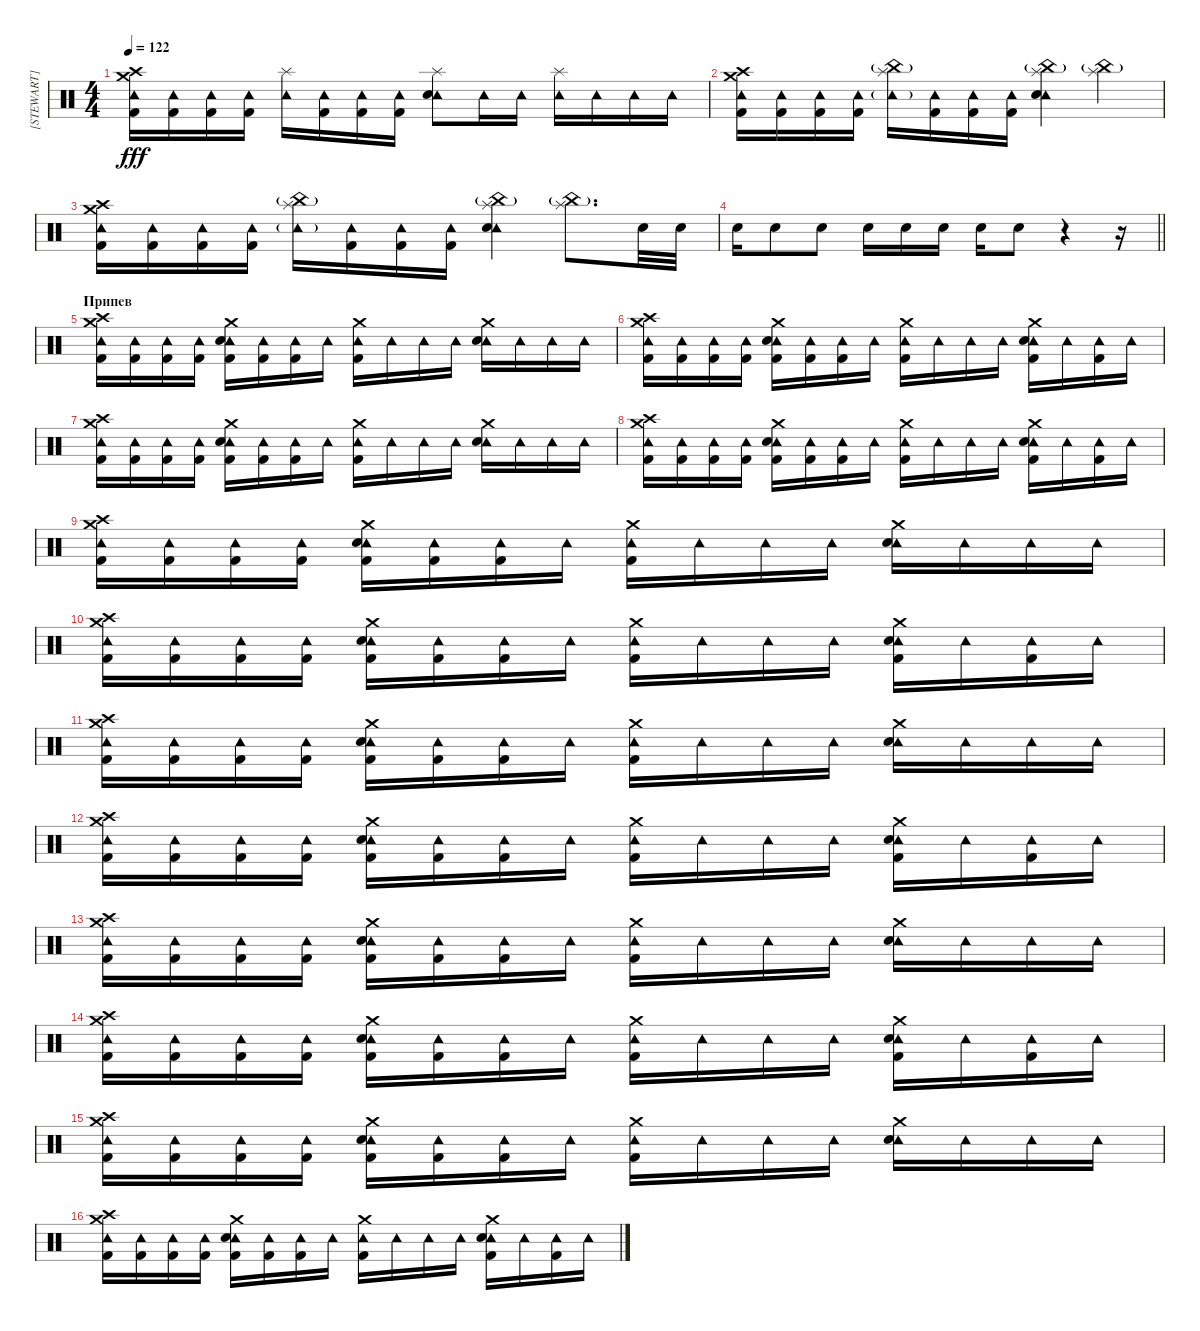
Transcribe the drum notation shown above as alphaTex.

\track ("[STEWART]" "[STEWART]") {instrument percussion}
\staff {score}
\articulation defaults
\ts (4 4)
\tempo 122
\clef neutral
\ks c
("Crash medium (hit)" "Crash high (hit)" "Tambourine (hit)" "Kick (hit) 2").16{dy fff} ("Tambourine (hit)" "Kick (hit) 2").16 ("Tambourine (hit)" "Kick (hit) 2").16 ("Tambourine (hit)" "Kick (hit) 2").16 ("Splash (hit)" "Tambourine (hit)").16 ("Tambourine (hit)" "Kick (hit) 2").16 ("Tambourine (hit)" "Kick (hit) 2").16 ("Tambourine (hit)" "Kick (hit) 2").16 ("Splash (hit)" "Tambourine (hit)" "Electric Snare (hit)").8 "Tambourine (hit)".16 "Tambourine (hit)".16 ("Splash (hit)" "Tambourine (hit)").16 "Tambourine (hit)".16 "Tambourine (hit)".16 "Tambourine (hit)".16 |
("Crash medium (hit)" "Crash high (hit)" "Tambourine (hit)" "Kick (hit) 2").16 ("Tambourine (hit)" "Kick (hit) 2").16 ("Tambourine (hit)" "Kick (hit) 2").16 ("Tambourine (hit)" "Kick (hit) 2").16 ("China (hit)"{g} "Splash (hit)" "Tambourine (hit)"{g}).16 ("Tambourine (hit)" "Kick (hit) 2").16 ("Tambourine (hit)" "Kick (hit) 2").16 ("Tambourine (hit)" "Kick (hit) 2").16 ("China (hit)"{g} "Splash (hit)" "Tambourine (hit)" "Electric Snare (hit)").4 ("China (hit)"{g} "Splash (hit)").4 |
("Crash medium (hit)" "Crash high (hit)" "Tambourine (hit)" "Kick (hit) 2").16 ("Tambourine (hit)" "Kick (hit) 2").16 ("Tambourine (hit)" "Kick (hit) 2").16 ("Tambourine (hit)" "Kick (hit) 2").16 ("China (hit)"{g} "Splash (hit)" "Tambourine (hit)"{g}).16 ("Tambourine (hit)" "Kick (hit) 2").16 ("Tambourine (hit)" "Kick (hit) 2").16 ("Tambourine (hit)" "Kick (hit) 2").16 ("China (hit)"{g} "Splash (hit)" "Tambourine (hit)" "Electric Snare (hit)").4 ("China (hit)"{g} "Splash (hit)").8{d} "Electric Snare (hit)".32 "Electric Snare (hit)".32 |
\barLineRight lightlight "Electric Snare (hit)".16 "Electric Snare (hit)".8 "Electric Snare (hit)".8 "Electric Snare (hit)".16 "Electric Snare (hit)".16 "Electric Snare (hit)".16 "Electric Snare (hit)".16 "Electric Snare (hit)".8
r.4 r.16 |
\section ("" "Припев")
("Crash medium (hit)" "Crash high (hit)" "Tambourine (hit)" "Kick (hit) 2").16 ("Tambourine (hit)" "Kick (hit) 2").16 ("Tambourine (hit)" "Kick (hit) 2").16 ("Tambourine (hit)" "Kick (hit) 2").16 ("Crash medium (hit)" "Tambourine (hit)" "Electric Snare (hit)" "Kick (hit) 2").16 ("Tambourine (hit)" "Kick (hit) 2").16 ("Tambourine (hit)" "Kick (hit) 2").16 "Tambourine (hit)".16 ("Crash medium (hit)" "Tambourine (hit)" "Kick (hit) 2").16 "Tambourine (hit)".16 "Tambourine (hit)".16 "Tambourine (hit)".16 ("Crash medium (hit)" "Tambourine (hit)" "Electric Snare (hit)").16 "Tambourine (hit)".16 "Tambourine (hit)".16 "Tambourine (hit)".16 |
("Crash medium (hit)" "Crash high (hit)" "Tambourine (hit)" "Kick (hit) 2").16 ("Tambourine (hit)" "Kick (hit) 2").16 ("Tambourine (hit)" "Kick (hit) 2").16 ("Tambourine (hit)" "Kick (hit) 2").16 ("Crash medium (hit)" "Tambourine (hit)" "Electric Snare (hit)" "Kick (hit) 2").16 ("Tambourine (hit)" "Kick (hit) 2").16 ("Tambourine (hit)" "Kick (hit) 2").16 "Tambourine (hit)".16 ("Crash medium (hit)" "Tambourine (hit)" "Kick (hit) 2").16 "Tambourine (hit)".16 "Tambourine (hit)".16 "Tambourine (hit)".16 ("Crash medium (hit)" "Tambourine (hit)" "Electric Snare (hit)" "Kick (hit) 2").16 "Tambourine (hit)".16 ("Tambourine (hit)" "Kick (hit) 2").16 "Tambourine (hit)".16 |
("Crash medium (hit)" "Crash high (hit)" "Tambourine (hit)" "Kick (hit) 2").16 ("Tambourine (hit)" "Kick (hit) 2").16 ("Tambourine (hit)" "Kick (hit) 2").16 ("Tambourine (hit)" "Kick (hit) 2").16 ("Crash medium (hit)" "Tambourine (hit)" "Electric Snare (hit)" "Kick (hit) 2").16 ("Tambourine (hit)" "Kick (hit) 2").16 ("Tambourine (hit)" "Kick (hit) 2").16 "Tambourine (hit)".16 ("Crash medium (hit)" "Tambourine (hit)" "Kick (hit) 2").16 "Tambourine (hit)".16 "Tambourine (hit)".16 "Tambourine (hit)".16 ("Crash medium (hit)" "Tambourine (hit)" "Electric Snare (hit)").16 "Tambourine (hit)".16 "Tambourine (hit)".16 "Tambourine (hit)".16 |
("Crash medium (hit)" "Crash high (hit)" "Tambourine (hit)" "Kick (hit) 2").16 ("Tambourine (hit)" "Kick (hit) 2").16 ("Tambourine (hit)" "Kick (hit) 2").16 ("Tambourine (hit)" "Kick (hit) 2").16 ("Crash medium (hit)" "Tambourine (hit)" "Electric Snare (hit)" "Kick (hit) 2").16 ("Tambourine (hit)" "Kick (hit) 2").16 ("Tambourine (hit)" "Kick (hit) 2").16 "Tambourine (hit)".16 ("Crash medium (hit)" "Tambourine (hit)" "Kick (hit) 2").16 "Tambourine (hit)".16 "Tambourine (hit)".16 "Tambourine (hit)".16 ("Crash medium (hit)" "Tambourine (hit)" "Electric Snare (hit)" "Kick (hit) 2").16 "Tambourine (hit)".16 ("Tambourine (hit)" "Kick (hit) 2").16 "Tambourine (hit)".16 |
("Crash medium (hit)" "Crash high (hit)" "Tambourine (hit)" "Kick (hit) 2").16 ("Tambourine (hit)" "Kick (hit) 2").16 ("Tambourine (hit)" "Kick (hit) 2").16 ("Tambourine (hit)" "Kick (hit) 2").16 ("Crash medium (hit)" "Tambourine (hit)" "Electric Snare (hit)" "Kick (hit) 2").16 ("Tambourine (hit)" "Kick (hit) 2").16 ("Tambourine (hit)" "Kick (hit) 2").16 "Tambourine (hit)".16 ("Crash medium (hit)" "Tambourine (hit)" "Kick (hit) 2").16 "Tambourine (hit)".16 "Tambourine (hit)".16 "Tambourine (hit)".16 ("Crash medium (hit)" "Tambourine (hit)" "Electric Snare (hit)").16 "Tambourine (hit)".16 "Tambourine (hit)".16 "Tambourine (hit)".16 |
("Crash medium (hit)" "Crash high (hit)" "Tambourine (hit)" "Kick (hit) 2").16 ("Tambourine (hit)" "Kick (hit) 2").16 ("Tambourine (hit)" "Kick (hit) 2").16 ("Tambourine (hit)" "Kick (hit) 2").16 ("Crash medium (hit)" "Tambourine (hit)" "Electric Snare (hit)" "Kick (hit) 2").16 ("Tambourine (hit)" "Kick (hit) 2").16 ("Tambourine (hit)" "Kick (hit) 2").16 "Tambourine (hit)".16 ("Crash medium (hit)" "Tambourine (hit)" "Kick (hit) 2").16 "Tambourine (hit)".16 "Tambourine (hit)".16 "Tambourine (hit)".16 ("Crash medium (hit)" "Tambourine (hit)" "Electric Snare (hit)" "Kick (hit) 2").16 "Tambourine (hit)".16 ("Tambourine (hit)" "Kick (hit) 2").16 "Tambourine (hit)".16 |
("Crash medium (hit)" "Crash high (hit)" "Tambourine (hit)" "Kick (hit) 2").16 ("Tambourine (hit)" "Kick (hit) 2").16 ("Tambourine (hit)" "Kick (hit) 2").16 ("Tambourine (hit)" "Kick (hit) 2").16 ("Crash medium (hit)" "Tambourine (hit)" "Electric Snare (hit)" "Kick (hit) 2").16 ("Tambourine (hit)" "Kick (hit) 2").16 ("Tambourine (hit)" "Kick (hit) 2").16 "Tambourine (hit)".16 ("Crash medium (hit)" "Tambourine (hit)" "Kick (hit) 2").16 "Tambourine (hit)".16 "Tambourine (hit)".16 "Tambourine (hit)".16 ("Crash medium (hit)" "Tambourine (hit)" "Electric Snare (hit)").16 "Tambourine (hit)".16 "Tambourine (hit)".16 "Tambourine (hit)".16 |
("Crash medium (hit)" "Crash high (hit)" "Tambourine (hit)" "Kick (hit) 2").16 ("Tambourine (hit)" "Kick (hit) 2").16 ("Tambourine (hit)" "Kick (hit) 2").16 ("Tambourine (hit)" "Kick (hit) 2").16 ("Crash medium (hit)" "Tambourine (hit)" "Electric Snare (hit)" "Kick (hit) 2").16 ("Tambourine (hit)" "Kick (hit) 2").16 ("Tambourine (hit)" "Kick (hit) 2").16 "Tambourine (hit)".16 ("Crash medium (hit)" "Tambourine (hit)" "Kick (hit) 2").16 "Tambourine (hit)".16 "Tambourine (hit)".16 "Tambourine (hit)".16 ("Crash medium (hit)" "Tambourine (hit)" "Electric Snare (hit)" "Kick (hit) 2").16 "Tambourine (hit)".16 ("Tambourine (hit)" "Kick (hit) 2").16 "Tambourine (hit)".16 |
("Crash medium (hit)" "Crash high (hit)" "Tambourine (hit)" "Kick (hit) 2").16 ("Tambourine (hit)" "Kick (hit) 2").16 ("Tambourine (hit)" "Kick (hit) 2").16 ("Tambourine (hit)" "Kick (hit) 2").16 ("Crash medium (hit)" "Tambourine (hit)" "Electric Snare (hit)" "Kick (hit) 2").16 ("Tambourine (hit)" "Kick (hit) 2").16 ("Tambourine (hit)" "Kick (hit) 2").16 "Tambourine (hit)".16 ("Crash medium (hit)" "Tambourine (hit)" "Kick (hit) 2").16 "Tambourine (hit)".16 "Tambourine (hit)".16 "Tambourine (hit)".16 ("Crash medium (hit)" "Tambourine (hit)" "Electric Snare (hit)").16 "Tambourine (hit)".16 "Tambourine (hit)".16 "Tambourine (hit)".16 |
("Crash medium (hit)" "Crash high (hit)" "Tambourine (hit)" "Kick (hit) 2").16 ("Tambourine (hit)" "Kick (hit) 2").16 ("Tambourine (hit)" "Kick (hit) 2").16 ("Tambourine (hit)" "Kick (hit) 2").16 ("Crash medium (hit)" "Tambourine (hit)" "Electric Snare (hit)" "Kick (hit) 2").16 ("Tambourine (hit)" "Kick (hit) 2").16 ("Tambourine (hit)" "Kick (hit) 2").16 "Tambourine (hit)".16 ("Crash medium (hit)" "Tambourine (hit)" "Kick (hit) 2").16 "Tambourine (hit)".16 "Tambourine (hit)".16 "Tambourine (hit)".16 ("Crash medium (hit)" "Tambourine (hit)" "Electric Snare (hit)" "Kick (hit) 2").16 "Tambourine (hit)".16 ("Tambourine (hit)" "Kick (hit) 2").16 "Tambourine (hit)".16 |
("Crash medium (hit)" "Crash high (hit)" "Tambourine (hit)" "Kick (hit) 2").16 ("Tambourine (hit)" "Kick (hit) 2").16 ("Tambourine (hit)" "Kick (hit) 2").16 ("Tambourine (hit)" "Kick (hit) 2").16 ("Crash medium (hit)" "Tambourine (hit)" "Electric Snare (hit)" "Kick (hit) 2").16 ("Tambourine (hit)" "Kick (hit) 2").16 ("Tambourine (hit)" "Kick (hit) 2").16 "Tambourine (hit)".16 ("Crash medium (hit)" "Tambourine (hit)" "Kick (hit) 2").16 "Tambourine (hit)".16 "Tambourine (hit)".16 "Tambourine (hit)".16 ("Crash medium (hit)" "Tambourine (hit)" "Electric Snare (hit)").16 "Tambourine (hit)".16 "Tambourine (hit)".16 "Tambourine (hit)".16 |
("Crash medium (hit)" "Crash high (hit)" "Tambourine (hit)" "Kick (hit) 2").16 ("Tambourine (hit)" "Kick (hit) 2").16 ("Tambourine (hit)" "Kick (hit) 2").16 ("Tambourine (hit)" "Kick (hit) 2").16 ("Crash medium (hit)" "Tambourine (hit)" "Electric Snare (hit)" "Kick (hit) 2").16 ("Tambourine (hit)" "Kick (hit) 2").16 ("Tambourine (hit)" "Kick (hit) 2").16 "Tambourine (hit)".16 ("Crash medium (hit)" "Tambourine (hit)" "Kick (hit) 2").16 "Tambourine (hit)".16 "Tambourine (hit)".16 "Tambourine (hit)".16 ("Crash medium (hit)" "Tambourine (hit)" "Electric Snare (hit)" "Kick (hit) 2").16 "Tambourine (hit)".16 ("Tambourine (hit)" "Kick (hit) 2").16 "Tambourine (hit)".16
